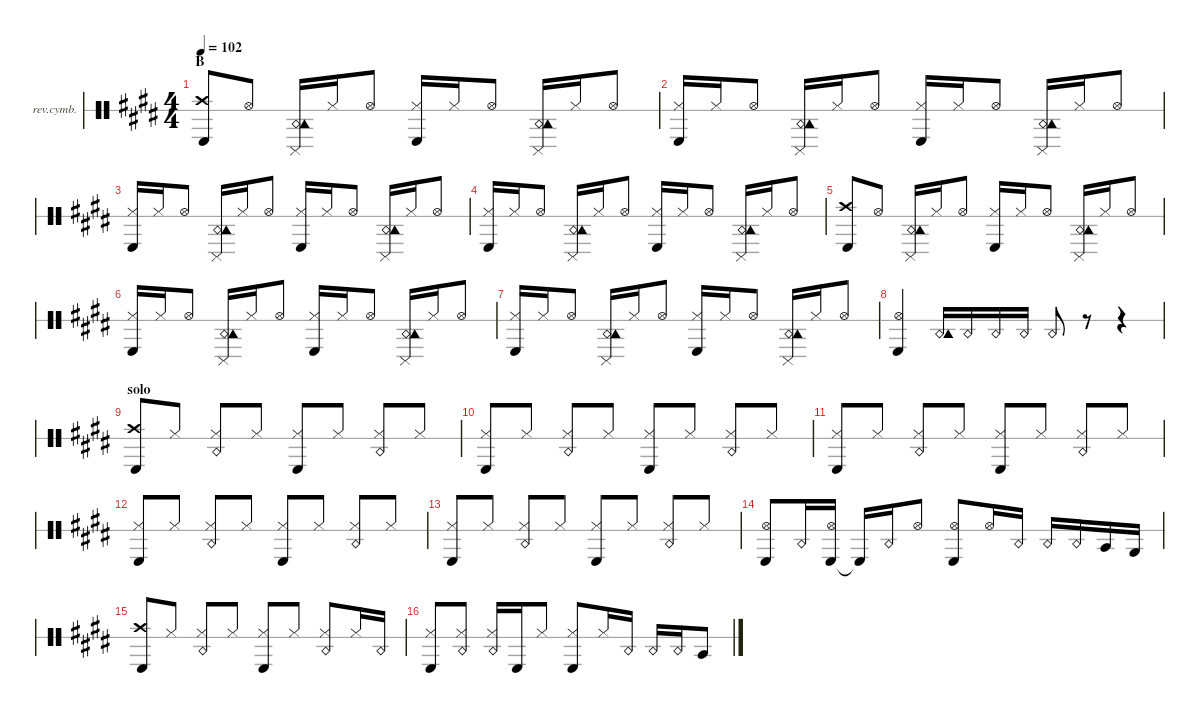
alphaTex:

\defaultSystemsLayout 4
\hideDynamics
\bracketExtendMode nobrackets
\firstSystemTrackNameOrientation horizontal
\otherSystemsTrackNameOrientation horizontal
\track ("Reverse Cymbal" "rev.cymb.") {defaultSystemsLayout 4 instrument percussion}
\staff {score 1}
\articulation defaults
\ts (4 4)
\section ("" "B")
\tempo 102
\clef neutral
\ks e
("Kick (hit) 2"{acc forcenatural} "Crash high (hit)"{acc forcenatural}).8{dy f beam Up} "Hi-Hat (open)"{acc forcenatural}.8{beam Up} ("Snare (rim shot)"{acc forcenatural} "Pedal Hi-Hat (hit)"{acc forcenatural} "Tambourine (hit)"{acc forcenatural}).16{beam Up} "Hi-Hat (closed)"{acc forcenatural}.16{beam Up} "Hi-Hat (open)"{acc forcenatural}.8{beam Up} ("Hi-Hat (closed)"{acc forcenatural} "Kick (hit) 2"{acc forcenatural}).16{beam Up} "Hi-Hat (closed)"{acc forcenatural}.16{beam Up} "Hi-Hat (open)"{acc forcenatural}.8{beam Up} ("Snare (rim shot)"{acc forcenatural} "Pedal Hi-Hat (hit)"{acc forcenatural} "Tambourine (hit)"{acc forcenatural}).16{beam Up} "Hi-Hat (closed)"{acc forcenatural}.16{beam Up} "Hi-Hat (open)"{acc forcenatural}.8{beam Up} |
("Hi-Hat (closed)"{acc forcenatural} "Kick (hit) 2"{acc forcenatural}).16{beam Up} "Hi-Hat (closed)"{acc forcenatural}.16{beam Up} "Hi-Hat (open)"{acc forcenatural}.8{beam Up} ("Snare (rim shot)"{acc forcenatural} "Pedal Hi-Hat (hit)"{acc forcenatural} "Tambourine (hit)"{acc forcenatural}).16{beam Up} "Hi-Hat (closed)"{acc forcenatural}.16{beam Up} "Hi-Hat (open)"{acc forcenatural}.8{beam Up} ("Hi-Hat (closed)"{acc forcenatural} "Kick (hit) 2"{acc forcenatural}).16{beam Up} "Hi-Hat (closed)"{acc forcenatural}.16{beam Up} "Hi-Hat (open)"{acc forcenatural}.8{beam Up} ("Snare (rim shot)"{acc forcenatural} "Pedal Hi-Hat (hit)"{acc forcenatural} "Tambourine (hit)"{acc forcenatural}).16{beam Up} "Hi-Hat (closed)"{acc forcenatural}.16{beam Up} "Hi-Hat (open)"{acc forcenatural}.8{beam Up} |
("Hi-Hat (closed)"{acc forcenatural} "Kick (hit) 2"{acc forcenatural}).16{beam Up} "Hi-Hat (closed)"{acc forcenatural}.16{beam Up} "Hi-Hat (open)"{acc forcenatural}.8{beam Up} ("Snare (rim shot)"{acc forcenatural} "Pedal Hi-Hat (hit)"{acc forcenatural} "Tambourine (hit)"{acc forcenatural}).16{beam Up} "Hi-Hat (closed)"{acc forcenatural}.16{beam Up} "Hi-Hat (open)"{acc forcenatural}.8{beam Up} ("Hi-Hat (closed)"{acc forcenatural} "Kick (hit) 2"{acc forcenatural}).16{beam Up} "Hi-Hat (closed)"{acc forcenatural}.16{beam Up} "Hi-Hat (open)"{acc forcenatural}.8{beam Up} ("Snare (rim shot)"{acc forcenatural} "Pedal Hi-Hat (hit)"{acc forcenatural} "Tambourine (hit)"{acc forcenatural}).16{beam Up} "Hi-Hat (closed)"{acc forcenatural}.16{beam Up} "Hi-Hat (open)"{acc forcenatural}.8{beam Up} |
("Hi-Hat (closed)"{acc forcenatural} "Kick (hit) 2"{acc forcenatural}).16{beam Up} "Hi-Hat (closed)"{acc forcenatural}.16{beam Up} "Hi-Hat (open)"{acc forcenatural}.8{beam Up} ("Snare (rim shot)"{acc forcenatural} "Pedal Hi-Hat (hit)"{acc forcenatural} "Tambourine (hit)"{acc forcenatural}).16{beam Up} "Hi-Hat (closed)"{acc forcenatural}.16{beam Up} "Hi-Hat (open)"{acc forcenatural}.8{beam Up} ("Hi-Hat (closed)"{acc forcenatural} "Kick (hit) 2"{acc forcenatural}).16{beam Up} "Hi-Hat (closed)"{acc forcenatural}.16{beam Up} "Hi-Hat (open)"{acc forcenatural}.8{beam Up} ("Snare (rim shot)"{acc forcenatural} "Pedal Hi-Hat (hit)"{acc forcenatural} "Tambourine (hit)"{acc forcenatural}).16{beam Up} "Hi-Hat (closed)"{acc forcenatural}.16{beam Up} "Hi-Hat (open)"{acc forcenatural}.8{beam Up} |
("Kick (hit) 2"{acc forcenatural} "Crash high (hit)"{acc forcenatural}).8{beam Up} "Hi-Hat (open)"{acc forcenatural}.8{beam Up} ("Snare (rim shot)"{acc forcenatural} "Pedal Hi-Hat (hit)"{acc forcenatural} "Tambourine (hit)"{acc forcenatural}).16{beam Up} "Hi-Hat (closed)"{acc forcenatural}.16{beam Up} "Hi-Hat (open)"{acc forcenatural}.8{beam Up} ("Hi-Hat (closed)"{acc forcenatural} "Kick (hit) 2"{acc forcenatural}).16{beam Up} "Hi-Hat (closed)"{acc forcenatural}.16{beam Up} "Hi-Hat (open)"{acc forcenatural}.8{beam Up} ("Snare (rim shot)"{acc forcenatural} "Pedal Hi-Hat (hit)"{acc forcenatural} "Tambourine (hit)"{acc forcenatural}).16{beam Up} "Hi-Hat (closed)"{acc forcenatural}.16{beam Up} "Hi-Hat (open)"{acc forcenatural}.8{beam Up} |
("Hi-Hat (closed)"{acc forcenatural} "Kick (hit) 2"{acc forcenatural}).16{beam Up} "Hi-Hat (closed)"{acc forcenatural}.16{beam Up} "Hi-Hat (open)"{acc forcenatural}.8{beam Up} ("Snare (rim shot)"{acc forcenatural} "Pedal Hi-Hat (hit)"{acc forcenatural} "Tambourine (hit)"{acc forcenatural}).16{beam Up} "Hi-Hat (closed)"{acc forcenatural}.16{beam Up} "Hi-Hat (open)"{acc forcenatural}.8{beam Up} ("Hi-Hat (closed)"{acc forcenatural} "Kick (hit) 2"{acc forcenatural}).16{beam Up} "Hi-Hat (closed)"{acc forcenatural}.16{beam Up} "Hi-Hat (open)"{acc forcenatural}.8{beam Up} ("Snare (rim shot)"{acc forcenatural} "Pedal Hi-Hat (hit)"{acc forcenatural} "Tambourine (hit)"{acc forcenatural}).16{beam Up} "Hi-Hat (closed)"{acc forcenatural}.16{beam Up} "Hi-Hat (open)"{acc forcenatural}.8{beam Up} |
("Hi-Hat (closed)"{acc forcenatural} "Kick (hit) 2"{acc forcenatural}).16{beam Up} "Hi-Hat (closed)"{acc forcenatural}.16{beam Up} "Hi-Hat (open)"{acc forcenatural}.8{beam Up} ("Snare (rim shot)"{acc forcenatural} "Pedal Hi-Hat (hit)"{acc forcenatural} "Tambourine (hit)"{acc forcenatural}).16{beam Up} "Hi-Hat (closed)"{acc forcenatural}.16{beam Up} "Hi-Hat (open)"{acc forcenatural}.8{beam Up} ("Hi-Hat (closed)"{acc forcenatural} "Kick (hit) 2"{acc forcenatural}).16{beam Up} "Hi-Hat (closed)"{acc forcenatural}.16{beam Up} "Hi-Hat (open)"{acc forcenatural}.8{beam Up} ("Snare (rim shot)"{acc forcenatural} "Pedal Hi-Hat (hit)"{acc forcenatural} "Tambourine (hit)"{acc forcenatural}).16{beam Up} "Hi-Hat (closed)"{acc forcenatural}.16{beam Up} "Hi-Hat (open)"{acc forcenatural}.8{beam Up} |
("Hi-Hat (open)"{acc forcenatural} "Kick (hit) 2"{acc forcenatural}).4{beam Up} ("Snare (rim shot)"{acc forcenatural} "Tambourine (hit)"{acc forcenatural}).16{beam Up} "Snare (rim shot)"{acc forcenatural}.16{beam Up} "Snare (rim shot)"{acc forcenatural}.16{beam Up} "Snare (rim shot)"{acc forcenatural}.16{beam Up} "Snare (rim shot)"{acc forcenatural}.8{beam Up} r.8{beam Up} r.4{beam Up} |
\section ("" "solo")
("Kick (hit) 2"{acc forcenatural} "Crash high (hit)"{acc forcenatural}).8{dy mf beam Up} "Hi-Hat (closed)"{acc forcenatural}.8{beam Up} ("Hi-Hat (closed)"{acc forcenatural} "Snare (rim shot)"{acc forcenatural}).8{dy f beam Up} "Hi-Hat (closed)"{acc forcenatural}.8{dy mf beam Up} ("Kick (hit) 2"{acc forcenatural} "Hi-Hat (closed)"{acc forcenatural}).8{beam Up} "Hi-Hat (closed)"{acc forcenatural}.8{beam Up} ("Hi-Hat (closed)"{acc forcenatural} "Snare (rim shot)"{acc forcenatural}).8{dy f beam Up} "Hi-Hat (closed)"{acc forcenatural}.8{dy mf beam Up} |
("Kick (hit) 2"{acc forcenatural} "Hi-Hat (closed)"{acc forcenatural}).8{beam Up} "Hi-Hat (closed)"{acc forcenatural}.8{beam Up} ("Hi-Hat (closed)"{acc forcenatural} "Snare (rim shot)"{acc forcenatural}).8{dy f beam Up} "Hi-Hat (closed)"{acc forcenatural}.8{dy mf beam Up} ("Kick (hit) 2"{acc forcenatural} "Hi-Hat (closed)"{acc forcenatural}).8{beam Up} "Hi-Hat (closed)"{acc forcenatural}.8{beam Up} ("Hi-Hat (closed)"{acc forcenatural} "Snare (rim shot)"{acc forcenatural}).8{dy f beam Up} "Hi-Hat (closed)"{acc forcenatural}.8{dy mf beam Up} |
("Kick (hit) 2"{acc forcenatural} "Hi-Hat (closed)"{acc forcenatural}).8{beam Up} "Hi-Hat (closed)"{acc forcenatural}.8{beam Up} ("Hi-Hat (closed)"{acc forcenatural} "Snare (rim shot)"{acc forcenatural}).8{dy f beam Up} "Hi-Hat (closed)"{acc forcenatural}.8{dy mf beam Up} ("Kick (hit) 2"{acc forcenatural} "Hi-Hat (closed)"{acc forcenatural}).8{beam Up} "Hi-Hat (closed)"{acc forcenatural}.8{beam Up} ("Hi-Hat (closed)"{acc forcenatural} "Snare (rim shot)"{acc forcenatural}).8{dy f beam Up} "Hi-Hat (closed)"{acc forcenatural}.8{dy mf beam Up} |
("Kick (hit) 2"{acc forcenatural} "Hi-Hat (closed)"{acc forcenatural}).8{beam Up} "Hi-Hat (closed)"{acc forcenatural}.8{beam Up} ("Hi-Hat (closed)"{acc forcenatural} "Snare (rim shot)"{acc forcenatural}).8{dy f beam Up} "Hi-Hat (closed)"{acc forcenatural}.8{dy mf beam Up} ("Kick (hit) 2"{acc forcenatural} "Hi-Hat (closed)"{acc forcenatural}).8{beam Up} "Hi-Hat (closed)"{acc forcenatural}.8{beam Up} ("Hi-Hat (closed)"{acc forcenatural} "Snare (rim shot)"{acc forcenatural}).8{dy f beam Up} "Hi-Hat (closed)"{acc forcenatural}.8{dy mf beam Up} |
("Kick (hit) 2"{acc forcenatural} "Hi-Hat (closed)"{acc forcenatural}).8{beam Up} "Hi-Hat (closed)"{acc forcenatural}.8{beam Up} ("Hi-Hat (closed)"{acc forcenatural} "Snare (rim shot)"{acc forcenatural}).8{dy f beam Up} "Hi-Hat (closed)"{acc forcenatural}.8{dy mf beam Up} ("Kick (hit) 2"{acc forcenatural} "Hi-Hat (closed)"{acc forcenatural}).8{beam Up} "Hi-Hat (closed)"{acc forcenatural}.8{beam Up} ("Hi-Hat (closed)"{acc forcenatural} "Snare (rim shot)"{acc forcenatural}).8{dy f beam Up} "Hi-Hat (closed)"{acc forcenatural}.8{dy mf beam Up} |
("Kick (hit) 2"{acc forcenatural} "Hi-Hat (open)"{acc forcenatural}).8{beam Up} "Snare (rim shot)"{acc forcenatural}.16{dy f beam Up} ("Kick (hit) 2"{acc forcenatural} "Hi-Hat (open)"{acc forcenatural}).16{dy mf beam Up} "Kick (hit) 2"{t acc forcenatural}.16{beam Up} "Snare (rim shot)"{acc forcenatural}.16{dy f beam Up} "Hi-Hat (open)"{acc forcenatural}.8{dy mf beam Up} ("Hi-Hat (open)"{acc forcenatural} "Kick (hit) 2"{acc forcenatural}).8{beam Up} "Hi-Hat (open)"{acc forcenatural}.16{beam Up} "Snare (rim shot)"{acc forcenatural}.16{beam Up} "Snare (rim shot)"{acc forcenatural}.16{dy f beam Up} "Snare (rim shot)"{acc forcenatural}.16{beam Up} "Mid Tom (hit)"{acc forcenatural}.16{beam Up} "Low Tom (hit)"{acc forcenatural}.16{beam Up} |
("Kick (hit) 2"{acc forcenatural} "Crash high (hit)"{acc forcenatural}).8{dy mf beam Up} "Hi-Hat (closed)"{acc forcenatural}.8{beam Up} ("Hi-Hat (closed)"{acc forcenatural} "Snare (rim shot)"{acc forcenatural}).8{dy f beam Up} "Hi-Hat (closed)"{acc forcenatural}.8{dy mf beam Up} ("Kick (hit) 2"{acc forcenatural} "Hi-Hat (closed)"{acc forcenatural}).8{beam Up} "Hi-Hat (closed)"{acc forcenatural}.8{beam Up} ("Hi-Hat (closed)"{acc forcenatural} "Snare (rim shot)"{acc forcenatural}).8{dy f beam Up} "Hi-Hat (closed)"{acc forcenatural}.16{dy mf beam Up} "Snare (rim shot)"{acc forcenatural}.16{beam Up} |
("Kick (hit) 2"{acc forcenatural} "Hi-Hat (closed)"{acc forcenatural}).8{beam Up} ("Hi-Hat (closed)"{acc forcenatural} "Snare (rim shot)"{acc forcenatural}).8{dy f beam Up} ("Hi-Hat (closed)"{acc forcenatural} "Snare (rim shot)"{acc forcenatural}).16{beam Up} "Kick (hit) 2"{acc forcenatural}.16{dy mf beam Up} "Hi-Hat (closed)"{acc forcenatural}.8{beam Up} ("Hi-Hat (closed)"{acc forcenatural} "Kick (hit) 2"{acc forcenatural}).8{beam Up} "Hi-Hat (closed)"{acc forcenatural}.16{beam Up} "Snare (rim shot)"{acc forcenatural}.16{beam Up} "Snare (rim shot)"{acc forcenatural}.16{dy f beam Up} "Snare (rim shot)"{acc forcenatural}.16{beam Up} "Mid Tom (hit)"{acc forcenatural}.8{beam Up}
